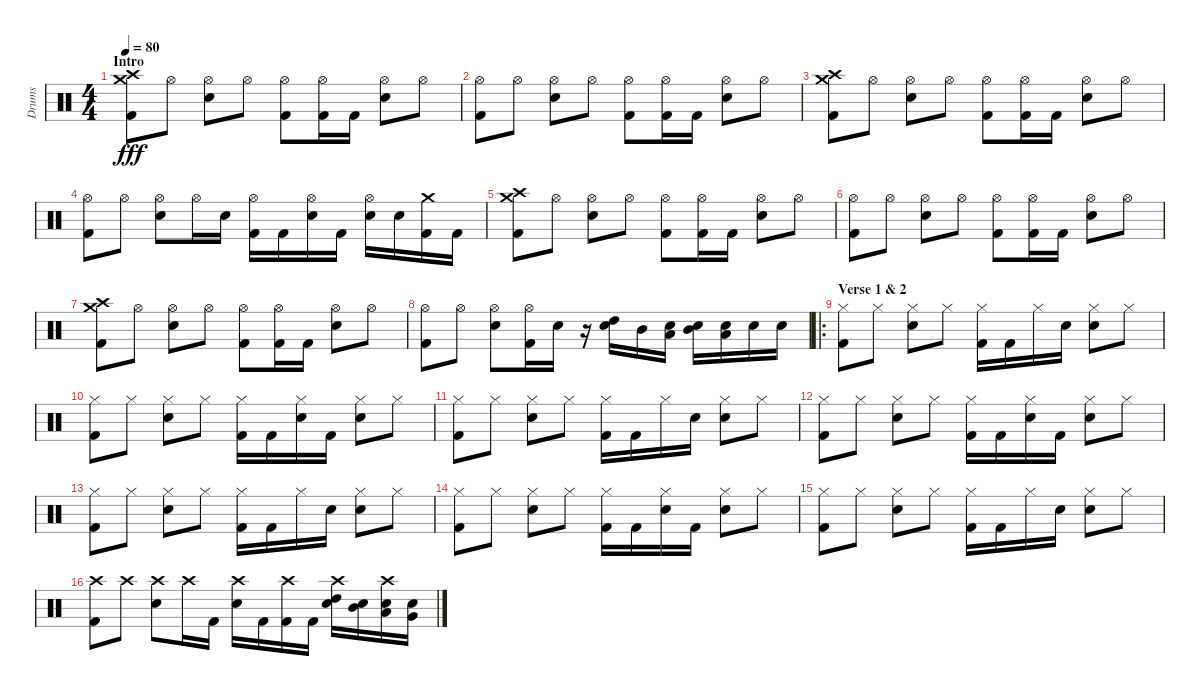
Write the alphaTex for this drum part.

\track ("Drums" "Drums") {instrument percussion}
\staff {score}
\articulation defaults
\ts (4 4)
\section ("" "Intro")
\tempo 80
\clef neutral
\ks c
("Crash high (hit)" "Crash medium (hit)" "Kick (hit) 2").8{dy fff} "Hi-Hat (open)".8 ("Hi-Hat (open)" "Electric Snare (hit)").8 "Hi-Hat (open)".8 ("Hi-Hat (open)" "Kick (hit) 2").8 ("Hi-Hat (open)" "Kick (hit) 2").16 "Kick (hit) 2".16 ("Hi-Hat (open)" "Electric Snare (hit)").8 "Hi-Hat (open)".8 |
("Hi-Hat (open)" "Kick (hit) 2").8 "Hi-Hat (open)".8 ("Hi-Hat (open)" "Electric Snare (hit)").8 "Hi-Hat (open)".8 ("Hi-Hat (open)" "Kick (hit) 2").8 ("Hi-Hat (open)" "Kick (hit) 2").16 "Kick (hit) 2".16 ("Hi-Hat (open)" "Electric Snare (hit)").8 "Hi-Hat (open)".8 |
("Crash high (hit)" "Crash medium (hit)" "Kick (hit) 2").8 "Hi-Hat (open)".8 ("Hi-Hat (open)" "Electric Snare (hit)").8 "Hi-Hat (open)".8 ("Hi-Hat (open)" "Kick (hit) 2").8 ("Hi-Hat (open)" "Kick (hit) 2").16 "Kick (hit) 2".16 ("Hi-Hat (open)" "Electric Snare (hit)").8 "Hi-Hat (open)".8 |
("Hi-Hat (open)" "Kick (hit) 2").8 "Hi-Hat (open)".8 ("Hi-Hat (open)" "Electric Snare (hit)").8 "Hi-Hat (open)".16 "Electric Snare (hit)".16 ("Hi-Hat (open)" "Kick (hit) 2").16 "Kick (hit) 2".16 ("Hi-Hat (open)" "Electric Snare (hit)").16 "Kick (hit) 2".16 ("Hi-Hat (open)" "Electric Snare (hit)").16 "Electric Snare (hit)".16 ("Crash medium (hit)" "Kick (hit) 2").16 "Kick (hit) 2".16 |
("Crash high (hit)" "Crash medium (hit)" "Kick (hit) 2").8 "Hi-Hat (open)".8 ("Hi-Hat (open)" "Electric Snare (hit)").8 "Hi-Hat (open)".8 ("Hi-Hat (open)" "Kick (hit) 2").8 ("Hi-Hat (open)" "Kick (hit) 2").16 "Kick (hit) 2".16 ("Hi-Hat (open)" "Electric Snare (hit)").8 "Hi-Hat (open)".8 |
("Hi-Hat (open)" "Kick (hit) 2").8 "Hi-Hat (open)".8 ("Hi-Hat (open)" "Electric Snare (hit)").8 "Hi-Hat (open)".8 ("Hi-Hat (open)" "Kick (hit) 2").8 ("Hi-Hat (open)" "Kick (hit) 2").16 "Kick (hit) 2".16 ("Hi-Hat (open)" "Electric Snare (hit)").8 "Hi-Hat (open)".8 |
("Crash high (hit)" "Crash medium (hit)" "Kick (hit) 2").8 "Hi-Hat (open)".8 ("Hi-Hat (open)" "Electric Snare (hit)").8 "Hi-Hat (open)".8 ("Hi-Hat (open)" "Kick (hit) 2").8 ("Hi-Hat (open)" "Kick (hit) 2").16 "Kick (hit) 2".16 ("Hi-Hat (open)" "Electric Snare (hit)").8 "Hi-Hat (open)".8 |
("Hi-Hat (open)" "Kick (hit) 2").8 "Hi-Hat (open)".8 ("Hi-Hat (open)" "Electric Snare (hit)").8 ("Hi-Hat (open)" "Kick (hit) 2").16 "Electric Snare (hit)".16 r.16 ("High Tom (hit)" "Electric Snare (hit)").16 "Mid Tom (hit)".16 ("Low Tom (hit)" "Electric Snare (hit)").16 ("Mid Tom (hit)" "Electric Snare (hit)").16 ("Low Tom (hit)" "Electric Snare (hit)").16 "Electric Snare (hit)".16 "Electric Snare (hit)".16 |
\ro
\section ("" "Verse 1 & 2")
("Hi-Hat (closed)" "Kick (hit) 2").8 "Hi-Hat (closed)".8 ("Hi-Hat (closed)" "Electric Snare (hit)").8 "Hi-Hat (closed)".8 ("Hi-Hat (closed)" "Kick (hit) 2").16 "Kick (hit) 2".16 "Hi-Hat (closed)".16 "Electric Snare (hit)".16 ("Hi-Hat (closed)" "Electric Snare (hit)").8 "Hi-Hat (closed)".8 |
("Hi-Hat (closed)" "Kick (hit) 2").8 "Hi-Hat (closed)".8 ("Hi-Hat (closed)" "Electric Snare (hit)").8 "Hi-Hat (closed)".8 ("Hi-Hat (closed)" "Kick (hit) 2").16 "Kick (hit) 2".16 ("Hi-Hat (closed)" "Electric Snare (hit)").16 "Kick (hit) 2".16 ("Hi-Hat (closed)" "Electric Snare (hit)").8 "Hi-Hat (closed)".8 |
("Hi-Hat (closed)" "Kick (hit) 2").8 "Hi-Hat (closed)".8 ("Hi-Hat (closed)" "Electric Snare (hit)").8 "Hi-Hat (closed)".8 ("Hi-Hat (closed)" "Kick (hit) 2").16 "Kick (hit) 2".16 "Hi-Hat (closed)".16 "Electric Snare (hit)".16 ("Hi-Hat (closed)" "Electric Snare (hit)").8 "Hi-Hat (closed)".8 |
("Hi-Hat (closed)" "Kick (hit) 2").8 "Hi-Hat (closed)".8 ("Hi-Hat (closed)" "Electric Snare (hit)").8 "Hi-Hat (closed)".8 ("Hi-Hat (closed)" "Kick (hit) 2").16 "Kick (hit) 2".16 ("Hi-Hat (closed)" "Electric Snare (hit)").16 "Kick (hit) 2".16 ("Hi-Hat (closed)" "Electric Snare (hit)").8 "Hi-Hat (closed)".8 |
("Hi-Hat (closed)" "Kick (hit) 2").8 "Hi-Hat (closed)".8 ("Hi-Hat (closed)" "Electric Snare (hit)").8 "Hi-Hat (closed)".8 ("Hi-Hat (closed)" "Kick (hit) 2").16 "Kick (hit) 2".16 "Hi-Hat (closed)".16 "Electric Snare (hit)".16 ("Hi-Hat (closed)" "Electric Snare (hit)").8 "Hi-Hat (closed)".8 |
("Hi-Hat (closed)" "Kick (hit) 2").8 "Hi-Hat (closed)".8 ("Hi-Hat (closed)" "Electric Snare (hit)").8 "Hi-Hat (closed)".8 ("Hi-Hat (closed)" "Kick (hit) 2").16 "Kick (hit) 2".16 ("Hi-Hat (closed)" "Electric Snare (hit)").16 "Kick (hit) 2".16 ("Hi-Hat (closed)" "Electric Snare (hit)").8 "Hi-Hat (closed)".8 |
("Hi-Hat (closed)" "Kick (hit) 2").8 "Hi-Hat (closed)".8 ("Hi-Hat (closed)" "Electric Snare (hit)").8 "Hi-Hat (closed)".8 ("Hi-Hat (closed)" "Kick (hit) 2").16 "Kick (hit) 2".16 "Hi-Hat (closed)".16 "Electric Snare (hit)".16 ("Hi-Hat (closed)" "Electric Snare (hit)").8 "Hi-Hat (closed)".8 |
("Crash high (hit)" "Kick (hit) 2").8 "Crash high (hit)".8 ("Crash high (hit)" "Electric Snare (hit)").8 "Crash high (hit)".16 "Kick (hit) 2".16 ("Crash high (hit)" "Electric Snare (hit)").16 "Kick (hit) 2".16 ("Crash high (hit)" "Kick (hit) 2").16 "Kick (hit) 2".16 ("Crash high (hit)" "High Tom (hit)" "Electric Snare (hit)").16 ("Mid Tom (hit)" "Electric Snare (hit)").16 ("Crash high (hit)" "Low Tom (hit)" "Electric Snare (hit)").16 ("Very Low Tom (hit)" "Electric Snare (hit)").16
